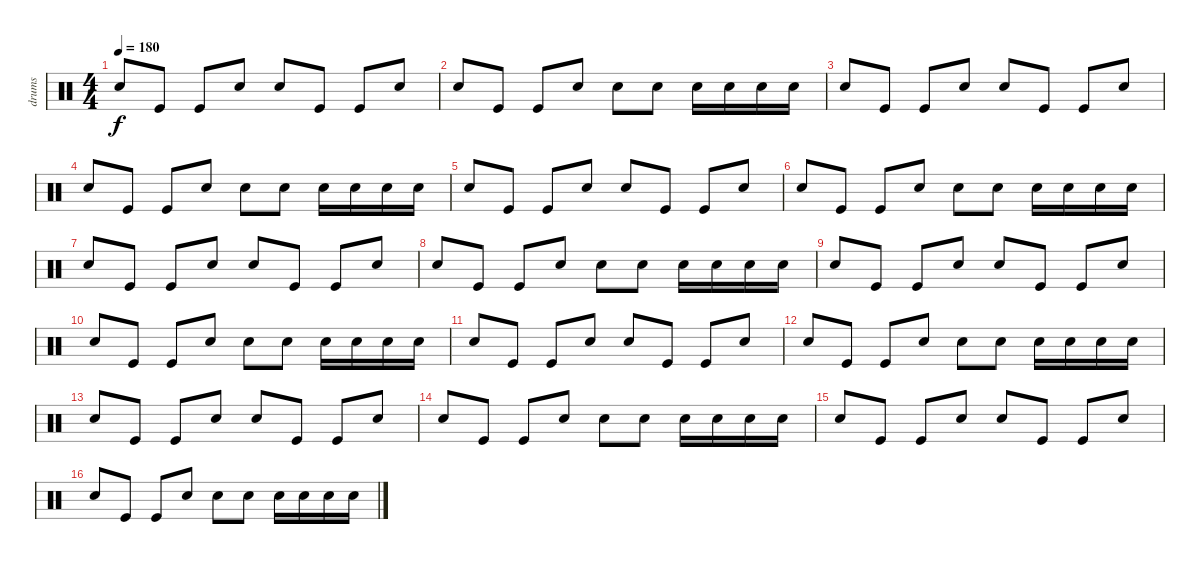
\track ("drums" "drums") {instrument percussion}
\staff {score}
\articulation defaults
\ts (4 4)
\tempo 180
\clef neutral
\ks c "Electric Snare (hit)".8{dy f} "Kick (hit)".8 "Kick (hit)".8 "Electric Snare (hit)".8 "Electric Snare (hit)".8 "Kick (hit)".8 "Kick (hit)".8 "Electric Snare (hit)".8
|
"Electric Snare (hit)".8 "Kick (hit)".8 "Kick (hit)".8 "Electric Snare (hit)".8 "Electric Snare (hit)".8 "Electric Snare (hit)".8 "Electric Snare (hit)".16 "Electric Snare (hit)".16 "Electric Snare (hit)".16 "Electric Snare (hit)".16 |
"Electric Snare (hit)".8 "Kick (hit)".8 "Kick (hit)".8 "Electric Snare (hit)".8 "Electric Snare (hit)".8 "Kick (hit)".8 "Kick (hit)".8 "Electric Snare (hit)".8 |
"Electric Snare (hit)".8 "Kick (hit)".8 "Kick (hit)".8 "Electric Snare (hit)".8 "Electric Snare (hit)".8 "Electric Snare (hit)".8 "Electric Snare (hit)".16 "Electric Snare (hit)".16 "Electric Snare (hit)".16 "Electric Snare (hit)".16 |
"Electric Snare (hit)".8 "Kick (hit)".8 "Kick (hit)".8 "Electric Snare (hit)".8 "Electric Snare (hit)".8 "Kick (hit)".8 "Kick (hit)".8 "Electric Snare (hit)".8 |
"Electric Snare (hit)".8 "Kick (hit)".8 "Kick (hit)".8 "Electric Snare (hit)".8 "Electric Snare (hit)".8 "Electric Snare (hit)".8 "Electric Snare (hit)".16 "Electric Snare (hit)".16 "Electric Snare (hit)".16 "Electric Snare (hit)".16 |
"Electric Snare (hit)".8 "Kick (hit)".8 "Kick (hit)".8 "Electric Snare (hit)".8 "Electric Snare (hit)".8 "Kick (hit)".8 "Kick (hit)".8 "Electric Snare (hit)".8 |
"Electric Snare (hit)".8 "Kick (hit)".8 "Kick (hit)".8 "Electric Snare (hit)".8 "Electric Snare (hit)".8 "Electric Snare (hit)".8 "Electric Snare (hit)".16 "Electric Snare (hit)".16 "Electric Snare (hit)".16 "Electric Snare (hit)".16 |
"Electric Snare (hit)".8 "Kick (hit)".8 "Kick (hit)".8 "Electric Snare (hit)".8 "Electric Snare (hit)".8 "Kick (hit)".8 "Kick (hit)".8 "Electric Snare (hit)".8 |
"Electric Snare (hit)".8 "Kick (hit)".8 "Kick (hit)".8 "Electric Snare (hit)".8 "Electric Snare (hit)".8 "Electric Snare (hit)".8 "Electric Snare (hit)".16 "Electric Snare (hit)".16 "Electric Snare (hit)".16 "Electric Snare (hit)".16 |
"Electric Snare (hit)".8 "Kick (hit)".8 "Kick (hit)".8 "Electric Snare (hit)".8 "Electric Snare (hit)".8 "Kick (hit)".8 "Kick (hit)".8 "Electric Snare (hit)".8 |
"Electric Snare (hit)".8 "Kick (hit)".8 "Kick (hit)".8 "Electric Snare (hit)".8 "Electric Snare (hit)".8 "Electric Snare (hit)".8 "Electric Snare (hit)".16 "Electric Snare (hit)".16 "Electric Snare (hit)".16 "Electric Snare (hit)".16 |
"Electric Snare (hit)".8 "Kick (hit)".8 "Kick (hit)".8 "Electric Snare (hit)".8 "Electric Snare (hit)".8 "Kick (hit)".8 "Kick (hit)".8 "Electric Snare (hit)".8 |
"Electric Snare (hit)".8 "Kick (hit)".8 "Kick (hit)".8 "Electric Snare (hit)".8 "Electric Snare (hit)".8 "Electric Snare (hit)".8 "Electric Snare (hit)".16 "Electric Snare (hit)".16 "Electric Snare (hit)".16 "Electric Snare (hit)".16 |
"Electric Snare (hit)".8 "Kick (hit)".8 "Kick (hit)".8 "Electric Snare (hit)".8 "Electric Snare (hit)".8 "Kick (hit)".8 "Kick (hit)".8 "Electric Snare (hit)".8 |
"Electric Snare (hit)".8 "Kick (hit)".8 "Kick (hit)".8 "Electric Snare (hit)".8 "Electric Snare (hit)".8 "Electric Snare (hit)".8 "Electric Snare (hit)".16 "Electric Snare (hit)".16 "Electric Snare (hit)".16 "Electric Snare (hit)".16
